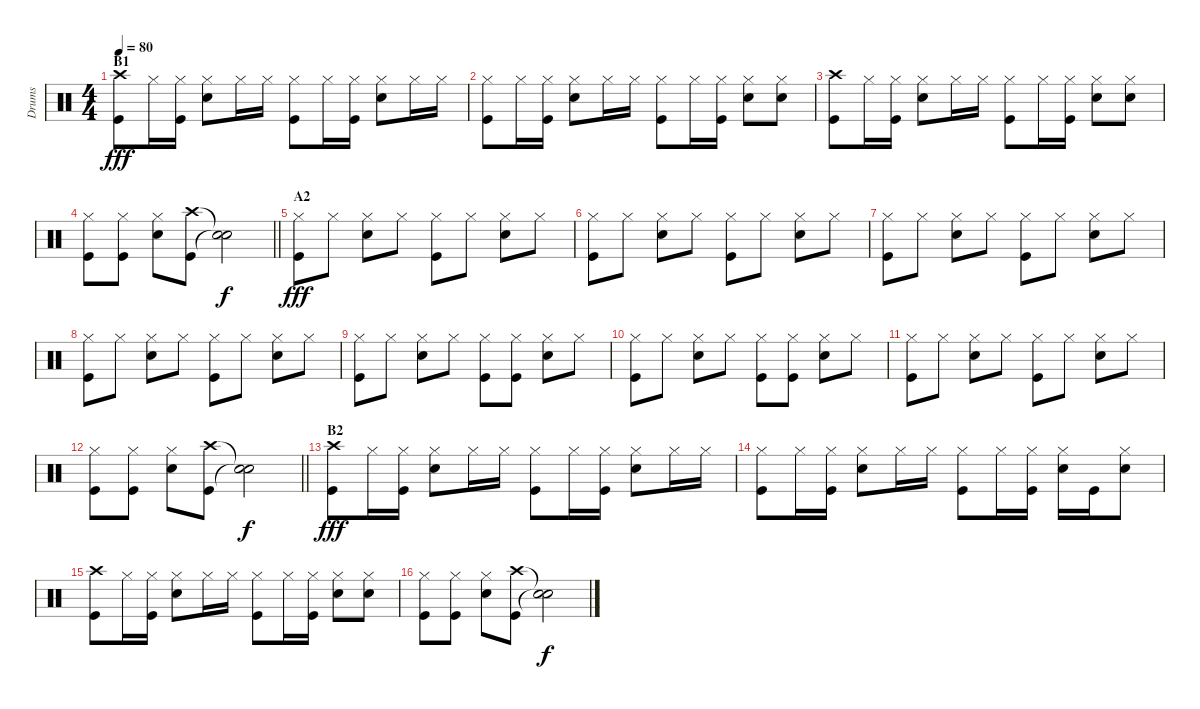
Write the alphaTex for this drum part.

\track ("Drums" "Drums") {instrument percussion}
\staff {score}
\articulation defaults
\ts (4 4)
\section ("" "B1")
\tempo 80
\clef neutral
\ks c
("Crash high (hit)" "Kick (hit)").8{dy fff} "Hi-Hat (closed)".16 ("Hi-Hat (closed)" "Kick (hit)").16 ("Hi-Hat (closed)" "Snare (hit) 2").8 "Hi-Hat (closed)".16 "Hi-Hat (closed)".16 ("Hi-Hat (closed)" "Kick (hit)").8 "Hi-Hat (closed)".16 ("Hi-Hat (closed)" "Kick (hit)").16 ("Hi-Hat (closed)" "Snare (hit) 2").8 "Hi-Hat (closed)".16 "Hi-Hat (closed)".16 |
("Hi-Hat (closed)" "Kick (hit)").8 "Hi-Hat (closed)".16 ("Hi-Hat (closed)" "Kick (hit)").16 ("Hi-Hat (closed)" "Snare (hit) 2").8 "Hi-Hat (closed)".16 "Hi-Hat (closed)".16 ("Hi-Hat (closed)" "Kick (hit)").8 "Hi-Hat (closed)".16 ("Hi-Hat (closed)" "Kick (hit)").16 ("Hi-Hat (closed)" "Snare (hit) 2").8 ("Hi-Hat (closed)" "Snare (hit) 2").8 |
("Crash high (hit)" "Kick (hit)").8 "Hi-Hat (closed)".16 ("Hi-Hat (closed)" "Kick (hit)").16 ("Hi-Hat (closed)" "Snare (hit) 2").8 "Hi-Hat (closed)".16 "Hi-Hat (closed)".16 ("Hi-Hat (closed)" "Kick (hit)").8 "Hi-Hat (closed)".16 ("Hi-Hat (closed)" "Kick (hit)").16 ("Hi-Hat (closed)" "Snare (hit) 2").8 ("Hi-Hat (closed)" "Snare (hit) 2").8 |
\barLineRight lightlight
("Hi-Hat (closed)" "Kick (hit)").8 ("Hi-Hat (closed)" "Kick (hit)").8 ("Hi-Hat (closed)" "Snare (hit) 2").8 ("Crash high (hit)" "Kick (hit)").8 ("Snare (hit)"{t} "Snare (hit)"{t}).2{dy f} |
\section ("" "A2")
("Hi-Hat (closed)" "Kick (hit)").8{dy fff} "Hi-Hat (closed)".8 ("Hi-Hat (closed)" "Snare (hit) 2").8 "Hi-Hat (closed)".8 ("Hi-Hat (closed)" "Kick (hit)").8 "Hi-Hat (closed)".8 ("Hi-Hat (closed)" "Snare (hit) 2").8 "Hi-Hat (closed)".8 |
("Hi-Hat (closed)" "Kick (hit)").8 "Hi-Hat (closed)".8 ("Hi-Hat (closed)" "Snare (hit) 2").8 "Hi-Hat (closed)".8 ("Hi-Hat (closed)" "Kick (hit)").8 "Hi-Hat (closed)".8 ("Hi-Hat (closed)" "Snare (hit) 2").8 "Hi-Hat (closed)".8 |
("Hi-Hat (closed)" "Kick (hit)").8 "Hi-Hat (closed)".8 ("Hi-Hat (closed)" "Snare (hit) 2").8 "Hi-Hat (closed)".8 ("Hi-Hat (closed)" "Kick (hit)").8 "Hi-Hat (closed)".8 ("Hi-Hat (closed)" "Snare (hit) 2").8 "Hi-Hat (closed)".8 |
("Hi-Hat (closed)" "Kick (hit)").8 "Hi-Hat (closed)".8 ("Hi-Hat (closed)" "Snare (hit) 2").8 "Hi-Hat (closed)".8 ("Hi-Hat (closed)" "Kick (hit)").8 "Hi-Hat (closed)".8 ("Hi-Hat (closed)" "Snare (hit) 2").8 "Hi-Hat (closed)".8 |
("Hi-Hat (closed)" "Kick (hit)").8 "Hi-Hat (closed)".8 ("Hi-Hat (closed)" "Snare (hit) 2").8 "Hi-Hat (closed)".8 ("Hi-Hat (closed)" "Kick (hit)").8 ("Hi-Hat (closed)" "Kick (hit)").8 ("Hi-Hat (closed)" "Snare (hit) 2").8 "Hi-Hat (closed)".8 |
("Hi-Hat (closed)" "Kick (hit)").8 "Hi-Hat (closed)".8 ("Hi-Hat (closed)" "Snare (hit) 2").8 "Hi-Hat (closed)".8 ("Hi-Hat (closed)" "Kick (hit)").8 ("Hi-Hat (closed)" "Kick (hit)").8 ("Hi-Hat (closed)" "Snare (hit) 2").8 "Hi-Hat (closed)".8 |
("Hi-Hat (closed)" "Kick (hit)").8 "Hi-Hat (closed)".8 ("Hi-Hat (closed)" "Snare (hit) 2").8 "Hi-Hat (closed)".8 ("Hi-Hat (closed)" "Kick (hit)").8 "Hi-Hat (closed)".8 ("Hi-Hat (closed)" "Snare (hit) 2").8 "Hi-Hat (closed)".8 |
\barLineRight lightlight
("Hi-Hat (closed)" "Kick (hit)").8 ("Hi-Hat (closed)" "Kick (hit)").8 ("Hi-Hat (closed)" "Snare (hit) 2").8 ("Crash high (hit)" "Kick (hit)").8 ("Snare (hit)"{t} "Snare (hit)"{t}).2{dy f} |
\section ("" "B2")
("Crash high (hit)" "Kick (hit)").8{dy fff} "Hi-Hat (closed)".16 ("Hi-Hat (closed)" "Kick (hit)").16 ("Hi-Hat (closed)" "Snare (hit) 2").8 "Hi-Hat (closed)".16 "Hi-Hat (closed)".16 ("Hi-Hat (closed)" "Kick (hit)").8 "Hi-Hat (closed)".16 ("Hi-Hat (closed)" "Kick (hit)").16 ("Hi-Hat (closed)" "Snare (hit) 2").8 "Hi-Hat (closed)".16 "Hi-Hat (closed)".16 |
("Hi-Hat (closed)" "Kick (hit)").8 "Hi-Hat (closed)".16 ("Hi-Hat (closed)" "Kick (hit)").16 ("Hi-Hat (closed)" "Snare (hit) 2").8 "Hi-Hat (closed)".16 "Hi-Hat (closed)".16 ("Hi-Hat (closed)" "Kick (hit)").8 "Hi-Hat (closed)".16 ("Hi-Hat (closed)" "Kick (hit)").16 ("Hi-Hat (closed)" "Snare (hit) 2").16 "Kick (hit)".16 ("Hi-Hat (closed)" "Snare (hit) 2").8 |
("Crash high (hit)" "Kick (hit)").8 "Hi-Hat (closed)".16 ("Hi-Hat (closed)" "Kick (hit)").16 ("Hi-Hat (closed)" "Snare (hit) 2").8 "Hi-Hat (closed)".16 "Hi-Hat (closed)".16 ("Hi-Hat (closed)" "Kick (hit)").8 "Hi-Hat (closed)".16 ("Hi-Hat (closed)" "Kick (hit)").16 ("Hi-Hat (closed)" "Snare (hit) 2").8 ("Hi-Hat (closed)" "Snare (hit) 2").8 |
("Hi-Hat (closed)" "Kick (hit)").8 ("Hi-Hat (closed)" "Kick (hit)").8 ("Hi-Hat (closed)" "Snare (hit) 2").8 ("Crash high (hit)" "Kick (hit)").8 ("Snare (hit)"{t} "Snare (hit)"{t}).2{dy f}
